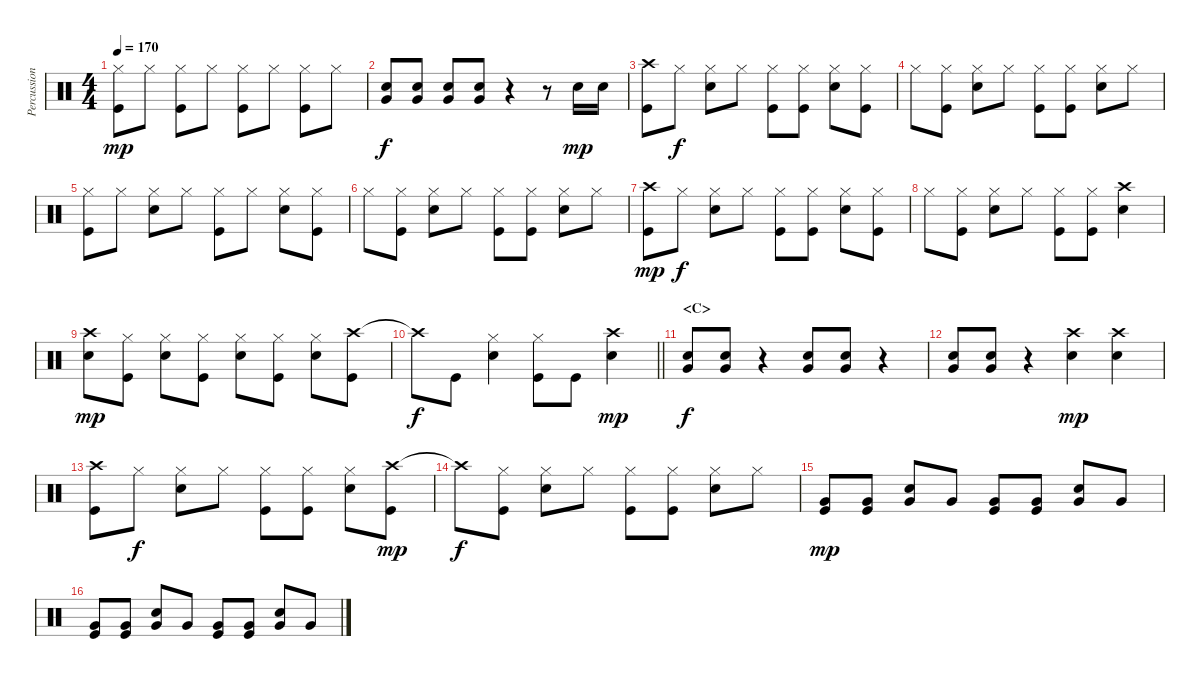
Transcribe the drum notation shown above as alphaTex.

\track ("Percussion" "Percussion") {instrument percussion}
\staff {score}
\articulation defaults
\ts (4 4)
\tempo 170
\clef neutral
\ks c
("Kick (hit)" "Hi-Hat (closed)").8{dy mp} "Hi-Hat (closed)".8 ("Kick (hit)" "Hi-Hat (closed)").8 "Hi-Hat (closed)".8 ("Kick (hit)" "Hi-Hat (closed)").8 "Hi-Hat (closed)".8 ("Kick (hit)" "Hi-Hat (closed)").8 "Hi-Hat (closed)".8 |
("Very Low Tom (hit)" "Snare (hit) 2").8{dy f} ("Very Low Tom (hit)" "Snare (hit) 2").8 ("Very Low Tom (hit)" "Snare (hit) 2").8 ("Very Low Tom (hit)" "Snare (hit) 2").8 r.4 r.8 "Snare (hit) 2".16{dy mp} "Snare (hit) 2".16 |
("Crash high (hit)" "Kick (hit)").8 "Hi-Hat (closed)".8{dy f} ("Hi-Hat (closed)" "Snare (hit) 2").8 "Hi-Hat (closed)".8 ("Hi-Hat (closed)" "Kick (hit)").8 ("Hi-Hat (closed)" "Kick (hit)").8 ("Hi-Hat (closed)" "Snare (hit) 2").8 ("Hi-Hat (closed)" "Kick (hit)").8 |
"Hi-Hat (closed)".8 ("Hi-Hat (closed)" "Kick (hit)").8 ("Hi-Hat (closed)" "Snare (hit) 2").8 "Hi-Hat (closed)".8 ("Hi-Hat (closed)" "Kick (hit)").8 ("Hi-Hat (closed)" "Kick (hit)").8 ("Hi-Hat (closed)" "Snare (hit) 2").8 "Hi-Hat (closed)".8 |
("Hi-Hat (closed)" "Kick (hit)").8 "Hi-Hat (closed)".8 ("Hi-Hat (closed)" "Snare (hit) 2").8 "Hi-Hat (closed)".8 ("Hi-Hat (closed)" "Kick (hit)").8 "Hi-Hat (closed)".8 ("Snare (hit) 2" "Hi-Hat (closed)").8 ("Hi-Hat (closed)" "Kick (hit)").8 |
"Hi-Hat (closed)".8 ("Hi-Hat (closed)" "Kick (hit)").8 ("Hi-Hat (closed)" "Snare (hit) 2").8 "Hi-Hat (closed)".8 ("Hi-Hat (closed)" "Kick (hit)").8 ("Hi-Hat (closed)" "Kick (hit)").8 ("Hi-Hat (closed)" "Snare (hit) 2").8 "Hi-Hat (closed)".8 |
("Crash high (hit)" "Kick (hit)").8{dy mp} "Hi-Hat (closed)".8{dy f} ("Hi-Hat (closed)" "Snare (hit) 2").8 "Hi-Hat (closed)".8 ("Hi-Hat (closed)" "Kick (hit)").8 ("Hi-Hat (closed)" "Kick (hit)").8 ("Hi-Hat (closed)" "Snare (hit) 2").8 ("Hi-Hat (closed)" "Kick (hit)").8 |
"Hi-Hat (closed)".8 ("Hi-Hat (closed)" "Kick (hit)").8 ("Hi-Hat (closed)" "Snare (hit) 2").8 "Hi-Hat (closed)".8 ("Hi-Hat (closed)" "Kick (hit)").8 ("Hi-Hat (closed)" "Kick (hit)").8 ("Crash high (hit)" "Snare (hit) 2").4 |
("Crash high (hit)" "Snare (hit) 2").8{dy mp} ("Hi-Hat (closed)" "Kick (hit)").8 ("Hi-Hat (closed)" "Snare (hit) 2").8 ("Hi-Hat (closed)" "Kick (hit)").8 ("Hi-Hat (closed)" "Snare (hit) 2").8 ("Hi-Hat (closed)" "Kick (hit)").8 ("Hi-Hat (closed)" "Snare (hit) 2").8 ("Crash high (hit)" "Kick (hit)").8 |
\barLineRight lightlight "Crash high (hit)"{t}.8{dy f} "Kick (hit)".8
("Hi-Hat (closed)" "Snare (hit) 2").4 ("Hi-Hat (closed)" "Kick (hit)").8 "Kick (hit)".8 ("Crash high (hit)" "Snare (hit) 2").4{dy mp} |
\section ("" "<C>")
("Very Low Tom (hit)" "Snare (hit) 2").8{dy f} ("Very Low Tom (hit)" "Snare (hit) 2").8 r.4 ("Very Low Tom (hit)" "Snare (hit) 2").8 ("Very Low Tom (hit)" "Snare (hit) 2").8 r.4 |
("Very Low Tom (hit)" "Snare (hit) 2").8 ("Very Low Tom (hit)" "Snare (hit) 2").8 r.4 ("Snare (hit) 2" "Crash high (hit)").4{dy mp} ("Crash high (hit)" "Snare (hit) 2").4 |
("Crash high (hit)" "Kick (hit)").8 "Hi-Hat (closed)".8{dy f} ("Hi-Hat (closed)" "Snare (hit) 2").8 "Hi-Hat (closed)".8 ("Hi-Hat (closed)" "Kick (hit)").8 ("Hi-Hat (closed)" "Kick (hit)").8 ("Hi-Hat (closed)" "Snare (hit) 2").8 ("Crash high (hit)" "Kick (hit)").8{dy mp} |
"Crash high (hit)"{t}.8{dy f} ("Hi-Hat (closed)" "Kick (hit)").8 ("Hi-Hat (closed)" "Snare (hit) 2").8 "Hi-Hat (closed)".8 ("Hi-Hat (closed)" "Kick (hit)").8 ("Hi-Hat (closed)" "Kick (hit)").8 ("Hi-Hat (closed)" "Snare (hit) 2").8 "Hi-Hat (closed)".8 |
("Very Low Tom (hit)" "Kick (hit)").8{dy mp} ("Very Low Tom (hit)" "Kick (hit)").8 ("Very Low Tom (hit)" "Snare (hit) 2").8 "Very Low Tom (hit)".8 ("Very Low Tom (hit)" "Kick (hit)").8 ("Very Low Tom (hit)" "Kick (hit)").8 ("Very Low Tom (hit)" "Snare (hit) 2").8 "Very Low Tom (hit)".8 |
("Very Low Tom (hit)" "Kick (hit)").8 ("Very Low Tom (hit)" "Kick (hit)").8 ("Very Low Tom (hit)" "Snare (hit) 2").8 "Very Low Tom (hit)".8 ("Very Low Tom (hit)" "Kick (hit)").8 ("Very Low Tom (hit)" "Kick (hit)").8 ("Very Low Tom (hit)" "Snare (hit) 2").8 "Very Low Tom (hit)".8
